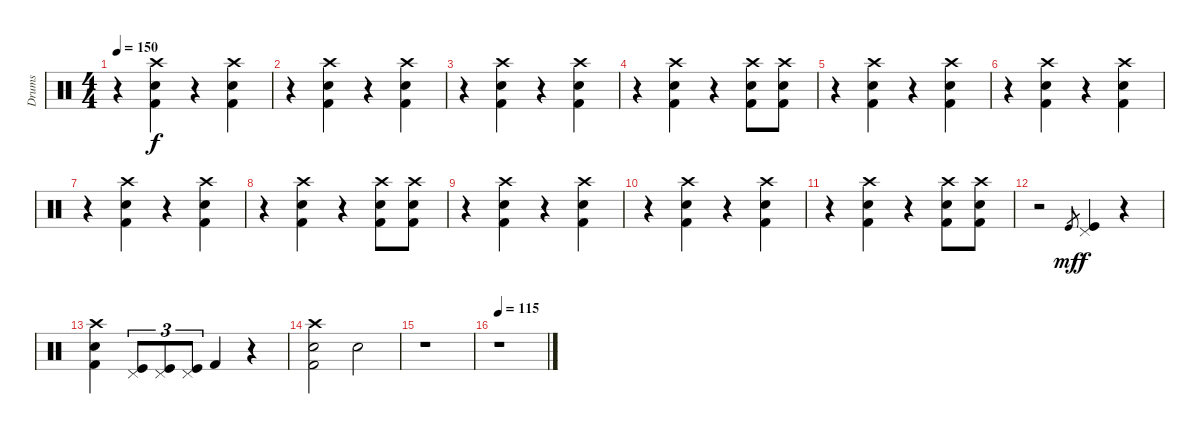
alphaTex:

\track ("Drums" "Drums") {instrument percussion}
\staff {score}
\articulation defaults
\ts (4 4)
\tempo 150
\clef neutral
\ks c
r.4{dy f} ("Kick (hit) 2" "Electric Snare (hit)" "Crash high (hit)").4 r.4 ("Kick (hit) 2" "Electric Snare (hit)" "Crash high (hit)").4 |
r.4 ("Kick (hit) 2" "Electric Snare (hit)" "Crash high (hit)").4 r.4 ("Kick (hit) 2" "Electric Snare (hit)" "Crash high (hit)").4 |
r.4 ("Kick (hit) 2" "Electric Snare (hit)" "Crash high (hit)").4 r.4 ("Kick (hit) 2" "Electric Snare (hit)" "Crash high (hit)").4 |
r.4 ("Kick (hit) 2" "Electric Snare (hit)" "Crash high (hit)").4 r.4 ("Kick (hit) 2" "Electric Snare (hit)" "Crash high (hit)").8 ("Kick (hit) 2" "Electric Snare (hit)" "Crash high (hit)").8 |
r.4 ("Kick (hit) 2" "Electric Snare (hit)" "Crash high (hit)").4 r.4 ("Kick (hit) 2" "Electric Snare (hit)" "Crash high (hit)").4 |
r.4 ("Kick (hit) 2" "Electric Snare (hit)" "Crash high (hit)").4 r.4 ("Kick (hit) 2" "Electric Snare (hit)" "Crash high (hit)").4 |
r.4 ("Kick (hit) 2" "Electric Snare (hit)" "Crash high (hit)").4 r.4 ("Kick (hit) 2" "Electric Snare (hit)" "Crash high (hit)").4 |
r.4 ("Kick (hit) 2" "Electric Snare (hit)" "Crash high (hit)").4 r.4 ("Kick (hit) 2" "Electric Snare (hit)" "Crash high (hit)").8 ("Kick (hit) 2" "Electric Snare (hit)" "Crash high (hit)").8 |
r.4 ("Kick (hit) 2" "Electric Snare (hit)" "Crash high (hit)").4 r.4 ("Kick (hit) 2" "Electric Snare (hit)" "Crash high (hit)").4 |
r.4 ("Kick (hit) 2" "Electric Snare (hit)" "Crash high (hit)").4 r.4 ("Kick (hit) 2" "Electric Snare (hit)" "Crash high (hit)").4 |
r.4 ("Kick (hit) 2" "Electric Snare (hit)" "Crash high (hit)").4 r.4 ("Kick (hit) 2" "Electric Snare (hit)" "Crash high (hit)").8 ("Kick (hit) 2" "Electric Snare (hit)" "Crash high (hit)").8 |
r.2 "Kick (hit)".8{gr dy mf} ("Kick (hit)" "Pedal Hi-Hat (hit)").4{dy f} r.4 |
("Kick (hit) 2" "Electric Snare (hit)" "Crash high (hit)").4 ("Kick (hit)" "Pedal Hi-Hat (hit)").8{tu (3 2)} ("Kick (hit)" "Pedal Hi-Hat (hit)").8{tu (3 2)} ("Kick (hit)" "Pedal Hi-Hat (hit)").8{tu (3 2)} "Kick (hit) 2".4 r.4 |
("Kick (hit) 2" "Electric Snare (hit)" "Crash high (hit)").2 "Electric Snare (hit)".2 |
r.1 |
\tempo 115
r.1
